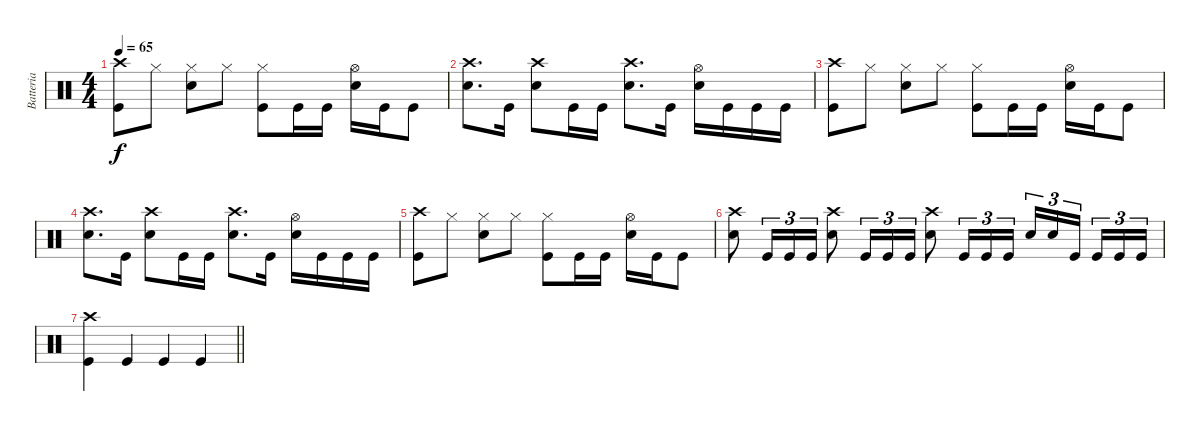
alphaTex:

\track ("Batteria" "Batteria") {instrument percussion}
\staff {score}
\articulation defaults
\ts (4 4)
\tempo 65
\clef neutral
\ks c
("Kick (hit)" "Crash high (hit)").8{dy f} "Hi-Hat (closed)".8 ("Snare (hit) 2" "Hi-Hat (closed)").8 "Hi-Hat (closed)".8 ("Kick (hit)" "Hi-Hat (closed)").8 "Kick (hit)".16 "Kick (hit)".16 ("Snare (hit) 2" "Hi-Hat (open)").16 "Kick (hit)".16 "Kick (hit)".8 |
("Snare (hit) 2" "Crash high (hit)").8{d} "Kick (hit)".16 ("Snare (hit) 2" "Crash high (hit)").8 "Kick (hit)".16 "Kick (hit)".16 ("Snare (hit) 2" "Crash high (hit)").8{d} "Kick (hit)".16 ("Snare (hit) 2" "Hi-Hat (open)").16 "Kick (hit)".16 "Kick (hit)".16 "Kick (hit)".16 |
("Kick (hit)" "Crash high (hit)").8 "Hi-Hat (closed)".8 ("Snare (hit) 2" "Hi-Hat (closed)").8 "Hi-Hat (closed)".8 ("Kick (hit)" "Hi-Hat (closed)").8 "Kick (hit)".16 "Kick (hit)".16 ("Snare (hit) 2" "Hi-Hat (open)").16 "Kick (hit)".16 "Kick (hit)".8 |
("Snare (hit) 2" "Crash high (hit)").8{d} "Kick (hit)".16 ("Snare (hit) 2" "Crash high (hit)").8 "Kick (hit)".16 "Kick (hit)".16 ("Snare (hit) 2" "Crash high (hit)").8{d} "Kick (hit)".16 ("Snare (hit) 2" "Hi-Hat (open)").16 "Kick (hit)".16 "Kick (hit)".16 "Kick (hit)".16 |
("Kick (hit)" "Crash high (hit)").8 "Hi-Hat (closed)".8 ("Snare (hit) 2" "Hi-Hat (closed)").8 "Hi-Hat (closed)".8 ("Kick (hit)" "Hi-Hat (closed)").8 "Kick (hit)".16 "Kick (hit)".16 ("Snare (hit) 2" "Hi-Hat (open)").16 "Kick (hit)".16 "Kick (hit)".8 |
("Snare (hit) 2" "Crash high (hit)").8 "Kick (hit)".16{tu (3 2)} "Kick (hit)".16{tu (3 2)} "Kick (hit)".16{tu (3 2)} ("Snare (hit) 2" "Crash high (hit)").8 "Kick (hit)".16{tu (3 2)} "Kick (hit)".16{tu (3 2)} "Kick (hit)".16{tu (3 2)} ("Snare (hit) 2" "Crash high (hit)").8 "Kick (hit)".16{tu (3 2)} "Kick (hit)".16{tu (3 2)} "Kick (hit)".16{tu (3 2)} "Snare (hit) 2".16{tu (3 2)} "Snare (hit) 2".16{tu (3 2)} "Kick (hit)".16{tu (3 2) beam splitsecondary} "Kick (hit)".16{tu (3 2)} "Kick (hit)".16{tu (3 2)} "Kick (hit)".16{tu (3 2)} |
\barLineRight lightlight
("Kick (hit)" "Crash high (hit)").4 "Kick (hit)".4 "Kick (hit)".4 "Kick (hit)".4
